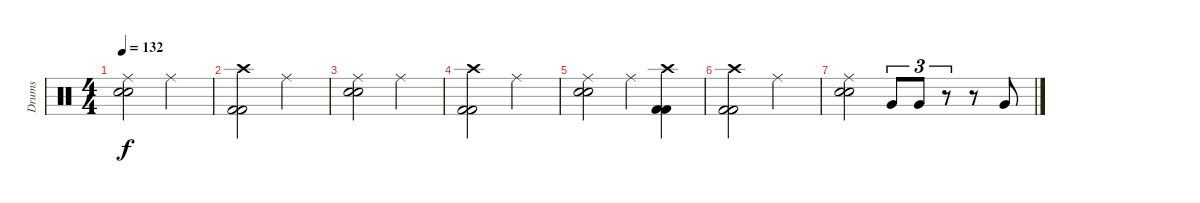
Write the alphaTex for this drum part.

\track ("Drums" "Drums") {instrument percussion}
\staff {score}
\articulation defaults
\ts (4 4)
\tempo 132
\clef neutral
\ks c
("Ride (middle)" "Snare (hit) 2" "Snare (hit) 2").2{dy f} "Ride (middle)".2 |
("Crash high (hit)" "Kick (hit) 2" "Kick (hit) 2").2 "Ride (middle)".2 |
("Ride (middle)" "Snare (hit) 2" "Snare (hit) 2").2{volume 0} "Ride (middle)".2 |
("Crash high (hit)" "Kick (hit) 2" "Kick (hit) 2").2 "Ride (middle)".2 |
("Ride (middle)" "Snare (hit) 2" "Snare (hit) 2").2 "Ride (middle)".4 ("Crash high (hit)" "Kick (hit) 2" "Kick (hit) 2").4 |
("Crash high (hit)" "Kick (hit) 2" "Kick (hit) 2").2 "Ride (middle)".2 |
("Ride (middle)" "Snare (hit) 2" "Snare (hit) 2").2 "Very Low Tom (hit)".8{tu (3 2)} "Very Low Tom (hit)".8{tu (3 2)} r.8{tu (3 2)} r.8 "Very Low Tom (hit)".8
